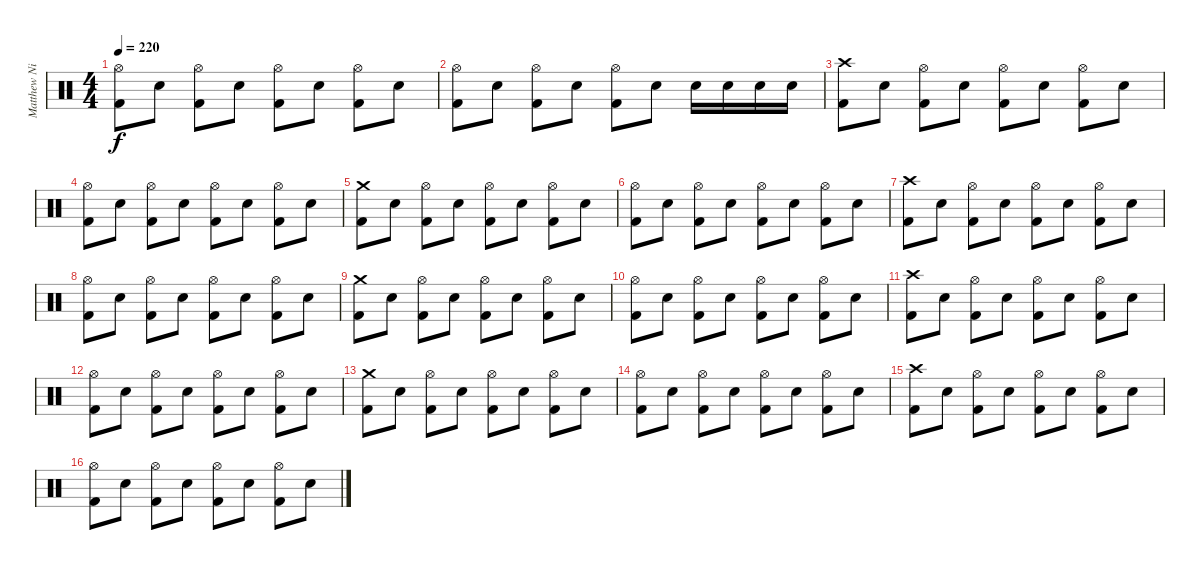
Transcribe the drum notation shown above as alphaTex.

\track ("Matthew Nicholls" "Matthew Ni") {instrument percussion}
\staff {score}
\articulation defaults
\ts (4 4)
\tempo 220
\clef neutral
\ks c
("Hi-Hat (open)" "Kick (hit) 2").8{dy f} "Electric Snare (hit)".8 ("Hi-Hat (open)" "Kick (hit) 2").8 "Electric Snare (hit)".8 ("Hi-Hat (open)" "Kick (hit) 2").8 "Electric Snare (hit)".8 ("Hi-Hat (open)" "Kick (hit) 2").8 "Electric Snare (hit)".8 |
("Hi-Hat (open)" "Kick (hit) 2").8 "Electric Snare (hit)".8 ("Hi-Hat (open)" "Kick (hit) 2").8 "Electric Snare (hit)".8 ("Hi-Hat (open)" "Kick (hit) 2").8 "Electric Snare (hit)".8 "Electric Snare (hit)".16 "Electric Snare (hit)".16 "Electric Snare (hit)".16 "Electric Snare (hit)".16 |
("Crash high (hit)" "Kick (hit) 2").8 "Electric Snare (hit)".8 ("Hi-Hat (open)" "Kick (hit) 2").8 "Electric Snare (hit)".8 ("Hi-Hat (open)" "Kick (hit) 2").8 "Electric Snare (hit)".8 ("Hi-Hat (open)" "Kick (hit) 2").8 "Electric Snare (hit)".8 |
("Hi-Hat (open)" "Kick (hit) 2").8 "Electric Snare (hit)".8 ("Hi-Hat (open)" "Kick (hit) 2").8 "Electric Snare (hit)".8 ("Hi-Hat (open)" "Kick (hit) 2").8 "Electric Snare (hit)".8 ("Hi-Hat (open)" "Kick (hit) 2").8 "Electric Snare (hit)".8 |
("Crash medium (hit)" "Kick (hit) 2").8 "Electric Snare (hit)".8 ("Hi-Hat (open)" "Kick (hit) 2").8 "Electric Snare (hit)".8 ("Hi-Hat (open)" "Kick (hit) 2").8 "Electric Snare (hit)".8 ("Hi-Hat (open)" "Kick (hit) 2").8 "Electric Snare (hit)".8 |
("Hi-Hat (open)" "Kick (hit) 2").8 "Electric Snare (hit)".8 ("Hi-Hat (open)" "Kick (hit) 2").8 "Electric Snare (hit)".8 ("Hi-Hat (open)" "Kick (hit) 2").8 "Electric Snare (hit)".8 ("Hi-Hat (open)" "Kick (hit) 2").8 "Electric Snare (hit)".8 |
("Crash high (hit)" "Kick (hit) 2").8 "Electric Snare (hit)".8 ("Hi-Hat (open)" "Kick (hit) 2").8 "Electric Snare (hit)".8 ("Hi-Hat (open)" "Kick (hit) 2").8 "Electric Snare (hit)".8 ("Hi-Hat (open)" "Kick (hit) 2").8 "Electric Snare (hit)".8 |
("Hi-Hat (open)" "Kick (hit) 2").8 "Electric Snare (hit)".8 ("Hi-Hat (open)" "Kick (hit) 2").8 "Electric Snare (hit)".8 ("Hi-Hat (open)" "Kick (hit) 2").8 "Electric Snare (hit)".8 ("Hi-Hat (open)" "Kick (hit) 2").8 "Electric Snare (hit)".8 |
("Crash medium (hit)" "Kick (hit) 2").8 "Electric Snare (hit)".8 ("Hi-Hat (open)" "Kick (hit) 2").8 "Electric Snare (hit)".8 ("Hi-Hat (open)" "Kick (hit) 2").8 "Electric Snare (hit)".8 ("Hi-Hat (open)" "Kick (hit) 2").8 "Electric Snare (hit)".8 |
("Hi-Hat (open)" "Kick (hit) 2").8 "Electric Snare (hit)".8 ("Hi-Hat (open)" "Kick (hit) 2").8 "Electric Snare (hit)".8 ("Hi-Hat (open)" "Kick (hit) 2").8 "Electric Snare (hit)".8 ("Hi-Hat (open)" "Kick (hit) 2").8 "Electric Snare (hit)".8 |
("Crash high (hit)" "Kick (hit) 2").8 "Electric Snare (hit)".8 ("Hi-Hat (open)" "Kick (hit) 2").8 "Electric Snare (hit)".8 ("Hi-Hat (open)" "Kick (hit) 2").8 "Electric Snare (hit)".8 ("Hi-Hat (open)" "Kick (hit) 2").8 "Electric Snare (hit)".8 |
("Hi-Hat (open)" "Kick (hit) 2").8 "Electric Snare (hit)".8 ("Hi-Hat (open)" "Kick (hit) 2").8 "Electric Snare (hit)".8 ("Hi-Hat (open)" "Kick (hit) 2").8 "Electric Snare (hit)".8 ("Hi-Hat (open)" "Kick (hit) 2").8 "Electric Snare (hit)".8 |
("Crash medium (hit)" "Kick (hit) 2").8 "Electric Snare (hit)".8 ("Hi-Hat (open)" "Kick (hit) 2").8 "Electric Snare (hit)".8 ("Hi-Hat (open)" "Kick (hit) 2").8 "Electric Snare (hit)".8 ("Hi-Hat (open)" "Kick (hit) 2").8 "Electric Snare (hit)".8 |
("Hi-Hat (open)" "Kick (hit) 2").8 "Electric Snare (hit)".8 ("Hi-Hat (open)" "Kick (hit) 2").8 "Electric Snare (hit)".8 ("Hi-Hat (open)" "Kick (hit) 2").8 "Electric Snare (hit)".8 ("Hi-Hat (open)" "Kick (hit) 2").8 "Electric Snare (hit)".8 |
("Crash high (hit)" "Kick (hit) 2").8 "Electric Snare (hit)".8 ("Hi-Hat (open)" "Kick (hit) 2").8 "Electric Snare (hit)".8 ("Hi-Hat (open)" "Kick (hit) 2").8 "Electric Snare (hit)".8 ("Hi-Hat (open)" "Kick (hit) 2").8 "Electric Snare (hit)".8 |
("Hi-Hat (open)" "Kick (hit) 2").8 "Electric Snare (hit)".8 ("Hi-Hat (open)" "Kick (hit) 2").8 "Electric Snare (hit)".8 ("Hi-Hat (open)" "Kick (hit) 2").8 "Electric Snare (hit)".8 ("Hi-Hat (open)" "Kick (hit) 2").8 "Electric Snare (hit)".8
